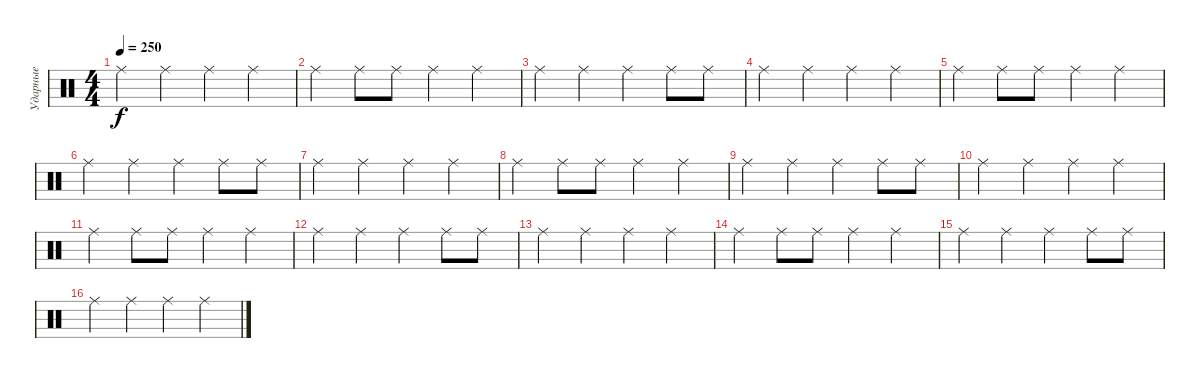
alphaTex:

\track ("Ударные" "Ударные") {instrument percussion}
\staff {score}
\articulation defaults
\ts (4 4)
\tempo 250
\clef neutral
\ks c "Ride (middle)".4{dy f} "Ride (middle)".4 "Ride (middle)".4 "Ride (middle)".4
|
"Ride (middle)".4 "Ride (middle)".8 "Ride (middle)".8 "Ride (middle)".4 "Ride (middle)".4 |
"Ride (middle)".4 "Ride (middle)".4 "Ride (middle)".4 "Ride (middle)".8 "Ride (middle)".8 |
"Ride (middle)".4 "Ride (middle)".4 "Ride (middle)".4 "Ride (middle)".4 |
"Ride (middle)".4 "Ride (middle)".8 "Ride (middle)".8 "Ride (middle)".4 "Ride (middle)".4 |
"Ride (middle)".4 "Ride (middle)".4 "Ride (middle)".4 "Ride (middle)".8 "Ride (middle)".8 |
"Ride (middle)".4 "Ride (middle)".4 "Ride (middle)".4 "Ride (middle)".4 |
"Ride (middle)".4 "Ride (middle)".8 "Ride (middle)".8 "Ride (middle)".4 "Ride (middle)".4 |
"Ride (middle)".4 "Ride (middle)".4 "Ride (middle)".4 "Ride (middle)".8 "Ride (middle)".8 |
"Ride (middle)".4 "Ride (middle)".4 "Ride (middle)".4 "Ride (middle)".4 |
"Ride (middle)".4 "Ride (middle)".8 "Ride (middle)".8 "Ride (middle)".4 "Ride (middle)".4 |
"Ride (middle)".4 "Ride (middle)".4 "Ride (middle)".4 "Ride (middle)".8 "Ride (middle)".8 |
"Ride (middle)".4 "Ride (middle)".4 "Ride (middle)".4 "Ride (middle)".4 |
"Ride (middle)".4 "Ride (middle)".8 "Ride (middle)".8 "Ride (middle)".4 "Ride (middle)".4 |
"Ride (middle)".4 "Ride (middle)".4 "Ride (middle)".4 "Ride (middle)".8 "Ride (middle)".8 |
"Ride (middle)".4 "Ride (middle)".4 "Ride (middle)".4 "Ride (middle)".4
